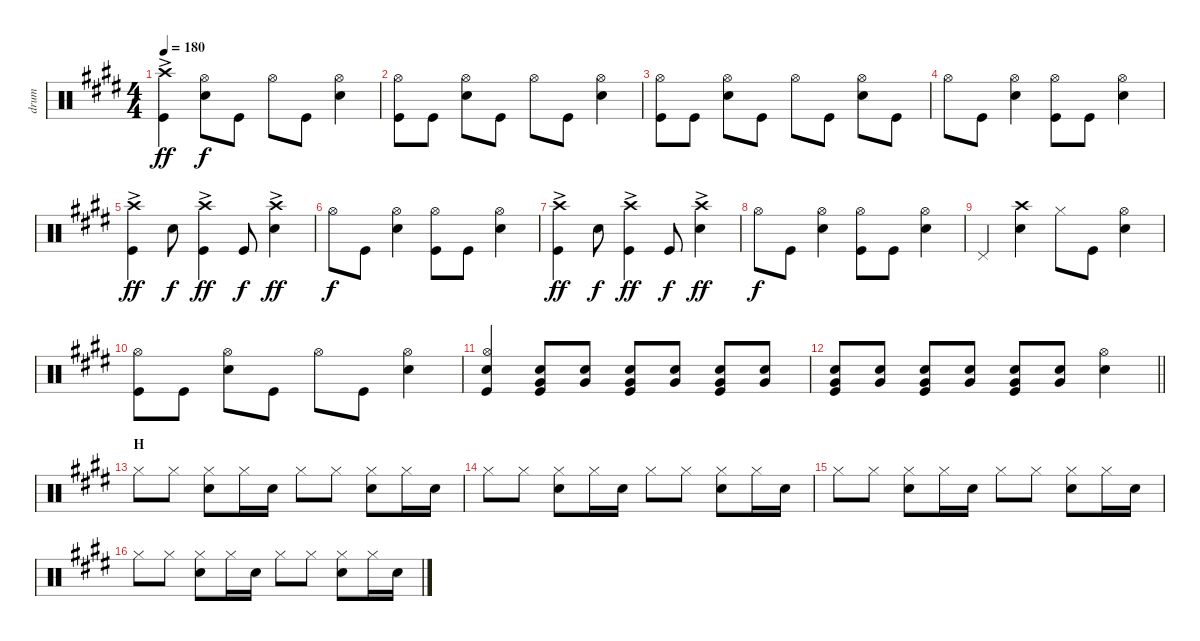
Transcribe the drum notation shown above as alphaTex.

\track ("drum" "drum") {instrument percussion}
\staff {score}
\articulation defaults
\ts (4 4)
\tempo 180
\clef neutral
\ks e
("Crash high (hit)"{ac} "Kick (hit)").4{dy ff} ("Hi-Hat (open)" "Snare (hit) 2").8{dy f} "Kick (hit)".8 "Hi-Hat (open)".8 "Kick (hit)".8 ("Hi-Hat (open)" "Snare (hit) 2").4 |
("Hi-Hat (open)" "Kick (hit)").8 "Kick (hit)".8 ("Hi-Hat (open)" "Snare (hit) 2").8 "Kick (hit)".8 "Hi-Hat (open)".8 "Kick (hit)".8 ("Hi-Hat (open)" "Snare (hit) 2").4 |
("Hi-Hat (open)" "Kick (hit)").8 "Kick (hit)".8 ("Hi-Hat (open)" "Snare (hit) 2").8 "Kick (hit)".8 "Hi-Hat (open)".8 "Kick (hit)".8 ("Hi-Hat (open)" "Snare (hit) 2").8 "Kick (hit)".8 |
"Hi-Hat (open)".8 "Kick (hit)".8 ("Hi-Hat (open)" "Snare (hit) 2").4 ("Hi-Hat (open)" "Kick (hit)").8 "Kick (hit)".8 ("Hi-Hat (open)" "Snare (hit) 2").4 |
("Crash high (hit)"{ac} "Kick (hit)").4{dy ff} "Snare (hit) 2".8{dy f} ("Crash high (hit)"{ac} "Kick (hit)").4{dy ff} "Kick (hit)".8{dy f} ("Crash high (hit)"{ac} "Snare (hit) 2").4{dy ff} |
"Hi-Hat (open)".8{dy f} "Kick (hit)".8 ("Hi-Hat (open)" "Snare (hit) 2").4 ("Hi-Hat (open)" "Kick (hit)").8 "Kick (hit)".8 ("Hi-Hat (open)" "Snare (hit) 2").4 |
("Crash high (hit)"{ac} "Kick (hit)").4{dy ff} "Snare (hit) 2".8{dy f} ("Crash high (hit)"{ac} "Kick (hit)").4{dy ff} "Kick (hit)".8{dy f} ("Crash high (hit)"{ac} "Snare (hit) 2").4{dy ff} |
"Hi-Hat (open)".8{dy f} "Kick (hit)".8 ("Hi-Hat (open)" "Snare (hit) 2").4 ("Hi-Hat (open)" "Kick (hit)").8 "Kick (hit)".8 ("Hi-Hat (open)" "Snare (hit) 2").4 |
"Pedal Hi-Hat (hit)".4 ("Crash high (hit)" "Snare (hit) 2").4 "Hi-Hat (closed)".8 "Kick (hit)".8 ("Hi-Hat (open)" "Snare (hit) 2").4 |
("Hi-Hat (open)" "Kick (hit)").8 "Kick (hit)".8 ("Hi-Hat (open)" "Snare (hit) 2").8 "Kick (hit)".8 "Hi-Hat (open)".8 "Kick (hit)".8 ("Hi-Hat (open)" "Snare (hit) 2").4 |
("Hi-Hat (open)" "Snare (hit) 2" "Kick (hit)").4 ("Snare (hit) 2" "Very Low Tom (hit)" "Kick (hit)").8 ("Snare (hit) 2" "Very Low Tom (hit)").8 ("Snare (hit) 2" "Very Low Tom (hit)" "Kick (hit)").8 ("Snare (hit) 2" "Very Low Tom (hit)").8 ("Snare (hit) 2" "Very Low Tom (hit)" "Kick (hit)").8 ("Snare (hit) 2" "Very Low Tom (hit)").8 |
\barLineRight lightlight
("Snare (hit) 2" "Very Low Tom (hit)" "Kick (hit)").8 ("Snare (hit) 2" "Very Low Tom (hit)").8 ("Snare (hit) 2" "Very Low Tom (hit)" "Kick (hit)").8 ("Snare (hit) 2" "Very Low Tom (hit)").8 ("Snare (hit) 2" "Very Low Tom (hit)" "Kick (hit)").8 ("Snare (hit) 2" "Very Low Tom (hit)").8 ("Hi-Hat (open)" "Snare (hit) 2").4 |
\section ("" "H")
"Hi-Hat (closed)".8{volume 10} "Hi-Hat (closed)".8 ("Hi-Hat (closed)" "Snare (hit) 2").8 "Hi-Hat (closed)".16 "Snare (hit) 2".16 "Hi-Hat (closed)".8 "Hi-Hat (closed)".8 ("Hi-Hat (closed)" "Snare (hit) 2").8 "Hi-Hat (closed)".16 "Snare (hit) 2".16 |
"Hi-Hat (closed)".8 "Hi-Hat (closed)".8 ("Hi-Hat (closed)" "Snare (hit) 2").8 "Hi-Hat (closed)".16 "Snare (hit) 2".16 "Hi-Hat (closed)".8 "Hi-Hat (closed)".8 ("Hi-Hat (closed)" "Snare (hit) 2").8 "Hi-Hat (closed)".16 "Snare (hit) 2".16 |
"Hi-Hat (closed)".8 "Hi-Hat (closed)".8 ("Hi-Hat (closed)" "Snare (hit) 2").8 "Hi-Hat (closed)".16 "Snare (hit) 2".16 "Hi-Hat (closed)".8 "Hi-Hat (closed)".8 ("Hi-Hat (closed)" "Snare (hit) 2").8 "Hi-Hat (closed)".16 "Snare (hit) 2".16 |
"Hi-Hat (closed)".8 "Hi-Hat (closed)".8 ("Hi-Hat (closed)" "Snare (hit) 2").8 "Hi-Hat (closed)".16 "Snare (hit) 2".16 "Hi-Hat (closed)".8 "Hi-Hat (closed)".8 ("Hi-Hat (closed)" "Snare (hit) 2").8 "Hi-Hat (closed)".16 "Snare (hit) 2".16
